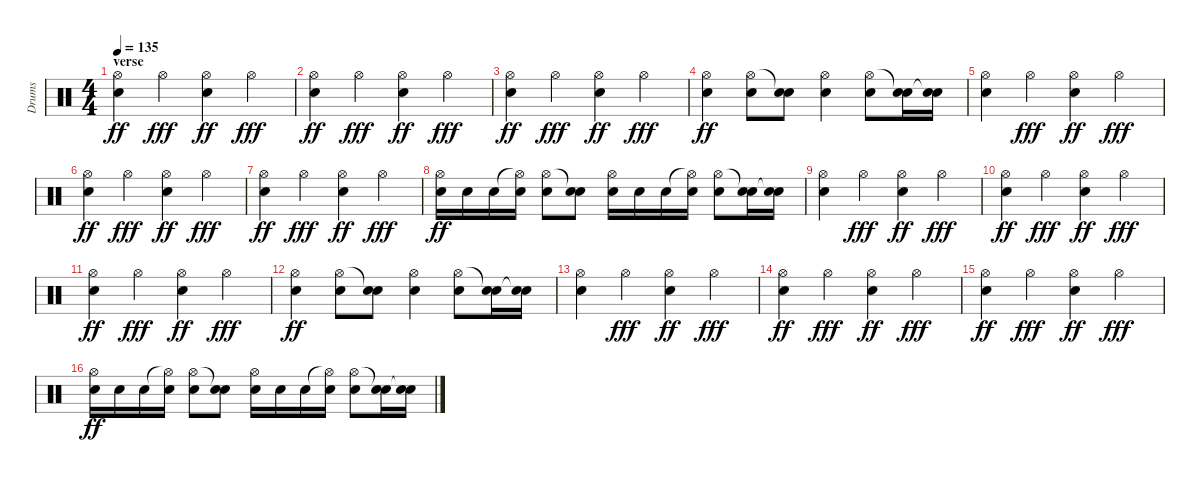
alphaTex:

\track ("Drums" "Drums") {instrument percussion}
\staff {score}
\articulation defaults
\ts (4 4)
\section ("" "verse")
\tempo 135
\clef neutral
\ks c
("Hi-Hat (open)" "Electric Snare (hit)").4{dy ff} "Hi-Hat (open)".4{dy fff} ("Hi-Hat (open)" "Electric Snare (hit)").4{dy ff} "Hi-Hat (open)".4{dy fff} |
("Hi-Hat (open)" "Electric Snare (hit)").4{dy ff} "Hi-Hat (open)".4{dy fff} ("Hi-Hat (open)" "Electric Snare (hit)").4{dy ff} "Hi-Hat (open)".4{dy fff} |
("Hi-Hat (open)" "Electric Snare (hit)").4{dy ff} "Hi-Hat (open)".4{dy fff} ("Hi-Hat (open)" "Electric Snare (hit)").4{dy ff} "Hi-Hat (open)".4{dy fff} |
("Hi-Hat (open)" "Electric Snare (hit)").4{dy ff} ("Hi-Hat (open)" "Electric Snare (hit)").8 ("Snare (hit)"{t} "Electric Snare (hit)").8 ("Hi-Hat (open)" "Electric Snare (hit)").4 ("Hi-Hat (open)" "Electric Snare (hit)").8 ("Snare (hit)"{t} "Electric Snare (hit)").16 ("Snare (hit)"{t} "Electric Snare (hit)").16 |
("Hi-Hat (open)" "Electric Snare (hit)").4 "Hi-Hat (open)".4{dy fff} ("Hi-Hat (open)" "Electric Snare (hit)").4{dy ff} "Hi-Hat (open)".4{dy fff} |
("Hi-Hat (open)" "Electric Snare (hit)").4{dy ff} "Hi-Hat (open)".4{dy fff} ("Hi-Hat (open)" "Electric Snare (hit)").4{dy ff} "Hi-Hat (open)".4{dy fff} |
("Hi-Hat (open)" "Electric Snare (hit)").4{dy ff} "Hi-Hat (open)".4{dy fff} ("Hi-Hat (open)" "Electric Snare (hit)").4{dy ff} "Hi-Hat (open)".4{dy fff} |
("Hi-Hat (open)" "Electric Snare (hit)").16{dy ff} "Electric Snare (hit)".16 "Electric Snare (hit)".16 ("Hi-Hat (open)"{t} "Electric Snare (hit)").16 ("Hi-Hat (open)" "Electric Snare (hit)").8 ("Snare (hit)"{t} "Electric Snare (hit)").8 ("Hi-Hat (open)" "Electric Snare (hit)").16 "Electric Snare (hit)".16 "Electric Snare (hit)".16 ("Hi-Hat (open)"{t} "Electric Snare (hit)").16 ("Hi-Hat (open)" "Electric Snare (hit)").8 ("Snare (hit)"{t} "Electric Snare (hit)").16 ("Snare (hit)"{t} "Electric Snare (hit)").16 |
("Hi-Hat (open)" "Electric Snare (hit)").4 "Hi-Hat (open)".4{dy fff} ("Hi-Hat (open)" "Electric Snare (hit)").4{dy ff} "Hi-Hat (open)".4{dy fff} |
("Hi-Hat (open)" "Electric Snare (hit)").4{dy ff} "Hi-Hat (open)".4{dy fff} ("Hi-Hat (open)" "Electric Snare (hit)").4{dy ff} "Hi-Hat (open)".4{dy fff} |
("Hi-Hat (open)" "Electric Snare (hit)").4{dy ff} "Hi-Hat (open)".4{dy fff} ("Hi-Hat (open)" "Electric Snare (hit)").4{dy ff} "Hi-Hat (open)".4{dy fff} |
("Hi-Hat (open)" "Electric Snare (hit)").4{dy ff} ("Hi-Hat (open)" "Electric Snare (hit)").8 ("Snare (hit)"{t} "Electric Snare (hit)").8 ("Hi-Hat (open)" "Electric Snare (hit)").4 ("Hi-Hat (open)" "Electric Snare (hit)").8 ("Snare (hit)"{t} "Electric Snare (hit)").16 ("Snare (hit)"{t} "Electric Snare (hit)").16 |
("Hi-Hat (open)" "Electric Snare (hit)").4 "Hi-Hat (open)".4{dy fff} ("Hi-Hat (open)" "Electric Snare (hit)").4{dy ff} "Hi-Hat (open)".4{dy fff} |
("Hi-Hat (open)" "Electric Snare (hit)").4{dy ff} "Hi-Hat (open)".4{dy fff} ("Hi-Hat (open)" "Electric Snare (hit)").4{dy ff} "Hi-Hat (open)".4{dy fff} |
("Hi-Hat (open)" "Electric Snare (hit)").4{dy ff} "Hi-Hat (open)".4{dy fff} ("Hi-Hat (open)" "Electric Snare (hit)").4{dy ff} "Hi-Hat (open)".4{dy fff} |
("Hi-Hat (open)" "Electric Snare (hit)").16{dy ff} "Electric Snare (hit)".16 "Electric Snare (hit)".16 ("Hi-Hat (open)"{t} "Electric Snare (hit)").16 ("Hi-Hat (open)" "Electric Snare (hit)").8 ("Snare (hit)"{t} "Electric Snare (hit)").8 ("Hi-Hat (open)" "Electric Snare (hit)").16 "Electric Snare (hit)".16 "Electric Snare (hit)".16 ("Hi-Hat (open)"{t} "Electric Snare (hit)").16 ("Hi-Hat (open)" "Electric Snare (hit)").8 ("Snare (hit)"{t} "Electric Snare (hit)").16 ("Snare (hit)"{t} "Electric Snare (hit)").16
